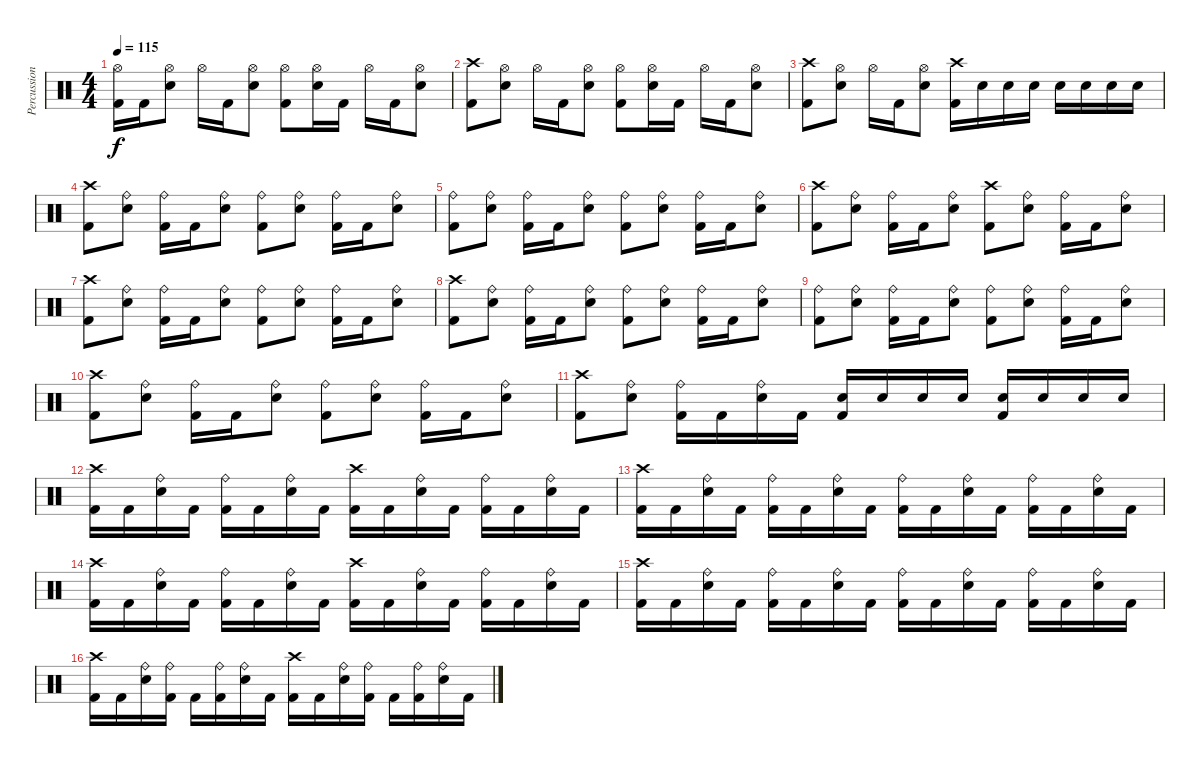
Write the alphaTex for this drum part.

\track ("Percussion" "Percussion") {instrument percussion}
\staff {score}
\articulation defaults
\ts (4 4)
\tempo 115
\clef neutral
\ks c
("Kick (hit) 2" "Hi-Hat (open)").16{dy f} "Kick (hit) 2".16 ("Electric Snare (hit)" "Hi-Hat (open)").8 "Hi-Hat (open)".16 "Kick (hit) 2".16 ("Electric Snare (hit)" "Hi-Hat (open)").8 ("Kick (hit) 2" "Hi-Hat (open)").8 ("Electric Snare (hit)" "Hi-Hat (open)").16 "Kick (hit) 2".16 "Hi-Hat (open)".16 "Kick (hit) 2".16 ("Electric Snare (hit)" "Hi-Hat (open)").8 |
("Kick (hit) 2" "Crash high (hit)").8 ("Electric Snare (hit)" "Hi-Hat (open)").8 "Hi-Hat (open)".16 "Kick (hit) 2".16 ("Electric Snare (hit)" "Hi-Hat (open)").8 ("Kick (hit) 2" "Hi-Hat (open)").8 ("Electric Snare (hit)" "Hi-Hat (open)").16 "Kick (hit) 2".16 "Hi-Hat (open)".16 "Kick (hit) 2".16 ("Electric Snare (hit)" "Hi-Hat (open)").8 |
("Kick (hit) 2" "Crash high (hit)").8 ("Electric Snare (hit)" "Hi-Hat (open)").8 "Hi-Hat (open)".16 "Kick (hit) 2".16 ("Electric Snare (hit)" "Hi-Hat (open)").8 ("Kick (hit) 2" "Crash high (hit)").16 "Electric Snare (hit)".16 "Electric Snare (hit)".16 "Electric Snare (hit)".16 "Electric Snare (hit)".16 "Electric Snare (hit)".16 "Electric Snare (hit)".16 "Electric Snare (hit)".16 |
("Kick (hit) 2" "Crash high (hit)").8 ("Electric Snare (hit)" "Ride (bell)").8 ("Kick (hit) 2" "Ride (bell)").16 "Kick (hit) 2".16 ("Electric Snare (hit)" "Ride (bell)").8 ("Kick (hit) 2" "Ride (bell)").8 ("Electric Snare (hit)" "Ride (bell)").8 ("Kick (hit) 2" "Ride (bell)").16 "Kick (hit) 2".16 ("Electric Snare (hit)" "Ride (bell)").8 |
("Kick (hit) 2" "Ride (bell)").8 ("Electric Snare (hit)" "Ride (bell)").8 ("Kick (hit) 2" "Ride (bell)").16 "Kick (hit) 2".16 ("Electric Snare (hit)" "Ride (bell)").8 ("Kick (hit) 2" "Ride (bell)").8 ("Electric Snare (hit)" "Ride (bell)").8 ("Kick (hit) 2" "Ride (bell)").16 "Kick (hit) 2".16 ("Electric Snare (hit)" "Ride (bell)").8 |
("Kick (hit) 2" "Crash high (hit)").8 ("Electric Snare (hit)" "Ride (bell)").8 ("Kick (hit) 2" "Ride (bell)").16 "Kick (hit) 2".16 ("Electric Snare (hit)" "Ride (bell)").8 ("Kick (hit) 2" "Crash high (hit)").8 ("Electric Snare (hit)" "Ride (bell)").8 ("Kick (hit) 2" "Ride (bell)").16 "Kick (hit) 2".16 ("Electric Snare (hit)" "Ride (bell)").8 |
("Kick (hit) 2" "Crash high (hit)").8 ("Electric Snare (hit)" "Ride (bell)").8 ("Kick (hit) 2" "Ride (bell)").16 "Kick (hit) 2".16 ("Electric Snare (hit)" "Ride (bell)").8 ("Kick (hit) 2" "Ride (bell)").8 ("Electric Snare (hit)" "Ride (bell)").8 ("Kick (hit) 2" "Ride (bell)").16 "Kick (hit) 2".16 ("Electric Snare (hit)" "Ride (bell)").8 |
("Kick (hit) 2" "Crash high (hit)").8 ("Electric Snare (hit)" "Ride (bell)").8 ("Kick (hit) 2" "Ride (bell)").16 "Kick (hit) 2".16 ("Electric Snare (hit)" "Ride (bell)").8 ("Kick (hit) 2" "Ride (bell)").8 ("Electric Snare (hit)" "Ride (bell)").8 ("Kick (hit) 2" "Ride (bell)").16 "Kick (hit) 2".16 ("Electric Snare (hit)" "Ride (bell)").8 |
("Kick (hit) 2" "Ride (bell)").8 ("Electric Snare (hit)" "Ride (bell)").8 ("Kick (hit) 2" "Ride (bell)").16 "Kick (hit) 2".16 ("Electric Snare (hit)" "Ride (bell)").8 ("Kick (hit) 2" "Ride (bell)").8 ("Electric Snare (hit)" "Ride (bell)").8 ("Kick (hit) 2" "Ride (bell)").16 "Kick (hit) 2".16 ("Electric Snare (hit)" "Ride (bell)").8 |
("Kick (hit) 2" "Crash high (hit)").8 ("Electric Snare (hit)" "Ride (bell)").8 ("Kick (hit) 2" "Ride (bell)").16 "Kick (hit) 2".16 ("Electric Snare (hit)" "Ride (bell)").8 ("Kick (hit) 2" "Ride (bell)").8 ("Electric Snare (hit)" "Ride (bell)").8 ("Kick (hit) 2" "Ride (bell)").16 "Kick (hit) 2".16 ("Electric Snare (hit)" "Ride (bell)").8 |
("Kick (hit) 2" "Crash high (hit)").8 ("Electric Snare (hit)" "Ride (bell)").8 ("Kick (hit) 2" "Ride (bell)").16 "Kick (hit) 2".16 ("Electric Snare (hit)" "Ride (bell)").16 "Kick (hit) 2".16 ("Electric Snare (hit)" "Kick (hit) 2").16 "Electric Snare (hit)".16 "Electric Snare (hit)".16 "Electric Snare (hit)".16 ("Electric Snare (hit)" "Kick (hit) 2").16 "Electric Snare (hit)".16 "Electric Snare (hit)".16 "Electric Snare (hit)".16 |
("Kick (hit) 2" "Crash high (hit)").16 "Kick (hit) 2".16 ("Electric Snare (hit)" "Ride (bell)").16 "Kick (hit) 2".16 ("Kick (hit) 2" "Ride (bell)").16 "Kick (hit) 2".16 ("Electric Snare (hit)" "Ride (bell)").16 "Kick (hit) 2".16 ("Kick (hit) 2" "Crash high (hit)").16 "Kick (hit) 2".16 ("Electric Snare (hit)" "Ride (bell)").16 "Kick (hit) 2".16 ("Kick (hit) 2" "Ride (bell)").16 "Kick (hit) 2".16 ("Electric Snare (hit)" "Ride (bell)").16 "Kick (hit) 2".16 |
("Kick (hit) 2" "Crash high (hit)").16 "Kick (hit) 2".16 ("Electric Snare (hit)" "Ride (bell)").16 "Kick (hit) 2".16 ("Kick (hit) 2" "Ride (bell)").16 "Kick (hit) 2".16 ("Electric Snare (hit)" "Ride (bell)").16 "Kick (hit) 2".16 ("Kick (hit) 2" "Ride (bell)").16 "Kick (hit) 2".16 ("Electric Snare (hit)" "Ride (bell)").16 "Kick (hit) 2".16 ("Kick (hit) 2" "Ride (bell)").16 "Kick (hit) 2".16 ("Electric Snare (hit)" "Ride (bell)").16 "Kick (hit) 2".16 |
("Kick (hit) 2" "Crash high (hit)").16 "Kick (hit) 2".16 ("Electric Snare (hit)" "Ride (bell)").16 "Kick (hit) 2".16 ("Kick (hit) 2" "Ride (bell)").16 "Kick (hit) 2".16 ("Electric Snare (hit)" "Ride (bell)").16 "Kick (hit) 2".16 ("Kick (hit) 2" "Crash high (hit)").16 "Kick (hit) 2".16 ("Electric Snare (hit)" "Ride (bell)").16 "Kick (hit) 2".16 ("Kick (hit) 2" "Ride (bell)").16 "Kick (hit) 2".16 ("Electric Snare (hit)" "Ride (bell)").16 "Kick (hit) 2".16 |
("Kick (hit) 2" "Crash high (hit)").16 "Kick (hit) 2".16 ("Electric Snare (hit)" "Ride (bell)").16 "Kick (hit) 2".16 ("Kick (hit) 2" "Ride (bell)").16 "Kick (hit) 2".16 ("Electric Snare (hit)" "Ride (bell)").16 "Kick (hit) 2".16 ("Kick (hit) 2" "Ride (bell)").16 "Kick (hit) 2".16 ("Electric Snare (hit)" "Ride (bell)").16 "Kick (hit) 2".16 ("Kick (hit) 2" "Ride (bell)").16 "Kick (hit) 2".16 ("Electric Snare (hit)" "Ride (bell)").16 "Kick (hit) 2".16 |
("Kick (hit) 2" "Crash high (hit)").16 "Kick (hit) 2".16 ("Electric Snare (hit)" "Ride (bell)").16 ("Kick (hit) 2" "Ride (bell)").16 "Kick (hit) 2".16 ("Kick (hit) 2" "Ride (bell)").16 ("Electric Snare (hit)" "Ride (bell)").16 "Kick (hit) 2".16 ("Kick (hit) 2" "Crash high (hit)").16 "Kick (hit) 2".16 ("Electric Snare (hit)" "Ride (bell)").16 ("Kick (hit) 2" "Ride (bell)").16 "Kick (hit) 2".16 ("Kick (hit) 2" "Ride (bell)").16 ("Electric Snare (hit)" "Ride (bell)").16 "Kick (hit) 2".16
